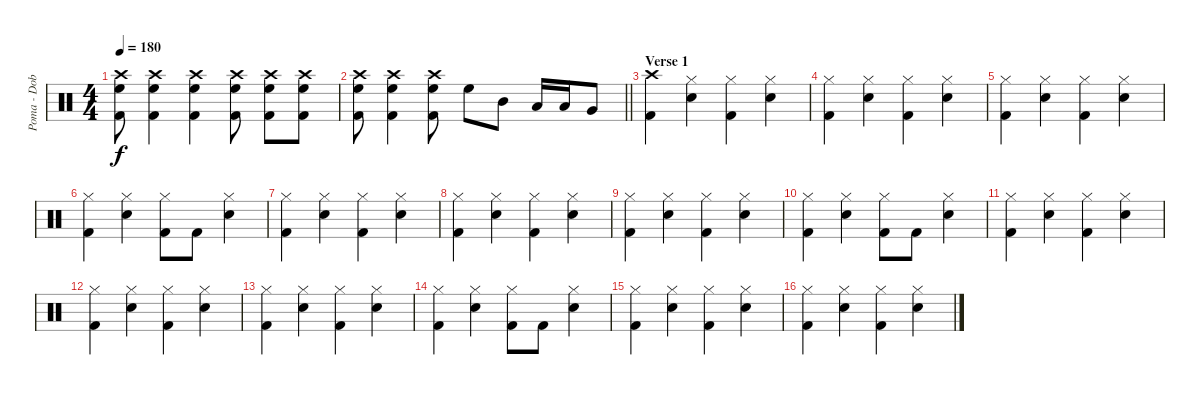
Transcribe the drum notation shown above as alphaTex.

\track ("Poma - Dob" "Poma - Dob") {instrument percussion}
\staff {score}
\articulation defaults
\ts (4 4)
\tempo 180
\clef neutral
\ks c
("Crash high (hit)" "High Floor Tom (hit)" "Kick (hit) 2").8{dy f} ("Crash high (hit)" "High Floor Tom (hit)" "Kick (hit) 2").4 ("Crash high (hit)" "High Floor Tom (hit)" "Kick (hit) 2").4 ("Crash high (hit)" "High Floor Tom (hit)" "Kick (hit) 2").8 ("Crash high (hit)" "High Floor Tom (hit)" "Kick (hit) 2").8 ("Crash high (hit)" "High Floor Tom (hit)" "Kick (hit) 2").8 |
\barLineRight lightlight
("Crash high (hit)" "High Floor Tom (hit)" "Kick (hit) 2").8 ("Crash high (hit)" "High Floor Tom (hit)" "Kick (hit) 2").4 ("Crash high (hit)" "High Floor Tom (hit)" "Kick (hit) 2").8 "High Floor Tom (hit)".8 "Mid Tom (hit)".8 "Low Tom (hit)".16 "Low Tom (hit)".16 "Very Low Tom (hit)".8 |
\section ("" "Verse 1")
("Crash high (hit)" "Kick (hit) 2").4 ("Hi-Hat (closed)" "Electric Snare (hit)").4 ("Hi-Hat (closed)" "Kick (hit) 2").4 ("Hi-Hat (closed)" "Electric Snare (hit)").4 |
("Hi-Hat (closed)" "Kick (hit) 2").4 ("Hi-Hat (closed)" "Electric Snare (hit)").4 ("Hi-Hat (closed)" "Kick (hit) 2").4 ("Hi-Hat (closed)" "Electric Snare (hit)").4 |
("Hi-Hat (closed)" "Kick (hit) 2").4 ("Hi-Hat (closed)" "Electric Snare (hit)").4 ("Hi-Hat (closed)" "Kick (hit) 2").4 ("Hi-Hat (closed)" "Electric Snare (hit)").4 |
("Hi-Hat (closed)" "Kick (hit) 2").4 ("Hi-Hat (closed)" "Electric Snare (hit)").4 ("Hi-Hat (closed)" "Kick (hit) 2").8 "Kick (hit) 2".8 ("Hi-Hat (closed)" "Electric Snare (hit)").4 |
("Hi-Hat (closed)" "Kick (hit) 2").4 ("Hi-Hat (closed)" "Electric Snare (hit)").4 ("Hi-Hat (closed)" "Kick (hit) 2").4 ("Hi-Hat (closed)" "Electric Snare (hit)").4 |
("Hi-Hat (closed)" "Kick (hit) 2").4 ("Hi-Hat (closed)" "Electric Snare (hit)").4 ("Hi-Hat (closed)" "Kick (hit) 2").4 ("Hi-Hat (closed)" "Electric Snare (hit)").4 |
("Hi-Hat (closed)" "Kick (hit) 2").4 ("Hi-Hat (closed)" "Electric Snare (hit)").4 ("Hi-Hat (closed)" "Kick (hit) 2").4 ("Hi-Hat (closed)" "Electric Snare (hit)").4 |
("Hi-Hat (closed)" "Kick (hit) 2").4 ("Hi-Hat (closed)" "Electric Snare (hit)").4 ("Hi-Hat (closed)" "Kick (hit) 2").8 "Kick (hit) 2".8 ("Hi-Hat (closed)" "Electric Snare (hit)").4 |
("Hi-Hat (closed)" "Kick (hit) 2").4 ("Hi-Hat (closed)" "Electric Snare (hit)").4 ("Hi-Hat (closed)" "Kick (hit) 2").4 ("Hi-Hat (closed)" "Electric Snare (hit)").4 |
("Hi-Hat (closed)" "Kick (hit) 2").4 ("Hi-Hat (closed)" "Electric Snare (hit)").4 ("Hi-Hat (closed)" "Kick (hit) 2").4 ("Hi-Hat (closed)" "Electric Snare (hit)").4 |
("Hi-Hat (closed)" "Kick (hit) 2").4 ("Hi-Hat (closed)" "Electric Snare (hit)").4 ("Hi-Hat (closed)" "Kick (hit) 2").4 ("Hi-Hat (closed)" "Electric Snare (hit)").4 |
("Hi-Hat (closed)" "Kick (hit) 2").4 ("Hi-Hat (closed)" "Electric Snare (hit)").4 ("Hi-Hat (closed)" "Kick (hit) 2").8 "Kick (hit) 2".8 ("Hi-Hat (closed)" "Electric Snare (hit)").4 |
("Hi-Hat (closed)" "Kick (hit) 2").4 ("Hi-Hat (closed)" "Electric Snare (hit)").4 ("Hi-Hat (closed)" "Kick (hit) 2").4 ("Hi-Hat (closed)" "Electric Snare (hit)").4 |
("Hi-Hat (closed)" "Kick (hit) 2").4 ("Hi-Hat (closed)" "Electric Snare (hit)").4 ("Hi-Hat (closed)" "Kick (hit) 2").4 ("Hi-Hat (closed)" "Electric Snare (hit)").4
